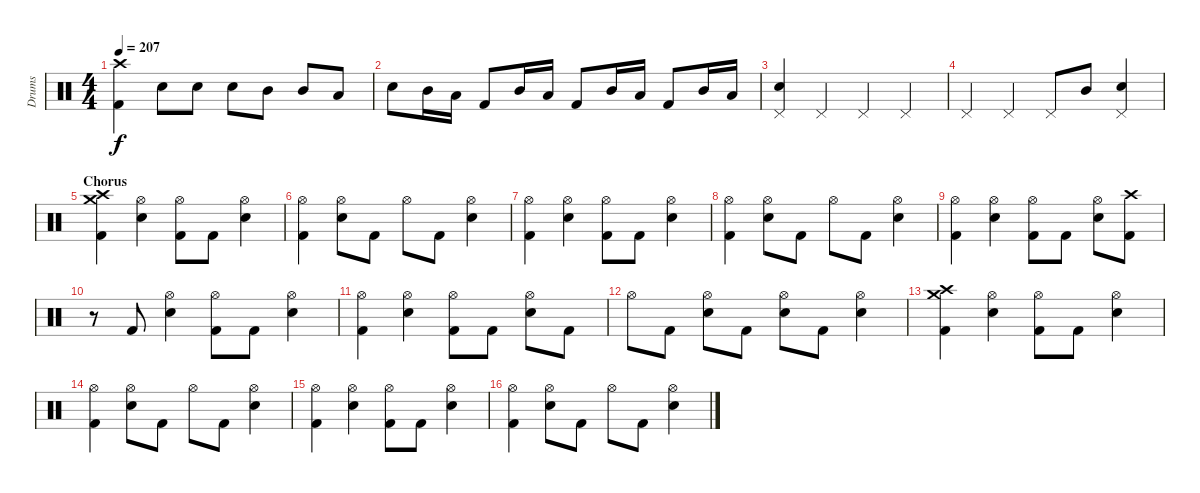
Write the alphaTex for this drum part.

\track ("Drums" "Drums") {instrument percussion}
\staff {score}
\articulation defaults
\ts (4 4)
\tempo 207
\clef neutral
\ks c
("Crash high (hit)" "Kick (hit) 2").4{dy f} "Snare (hit) 2".8 "Snare (hit) 2".8 "Snare (hit) 2".8 "Mid Tom (hit)".8 "Mid Tom (hit)".8 "Low Tom (hit)".8 |
"Snare (hit) 2".8 "Mid Tom (hit)".16 "Low Tom (hit)".16 "Kick (hit) 2".8 "Mid Tom (hit)".16 "Low Tom (hit)".16 "Kick (hit) 2".8 "Mid Tom (hit)".16 "Low Tom (hit)".16 "Kick (hit) 2".8 "Mid Tom (hit)".16 "Low Tom (hit)".16 |
("Pedal Hi-Hat (hit)" "Snare (hit) 2").4 "Pedal Hi-Hat (hit)".4 "Pedal Hi-Hat (hit)".4 "Pedal Hi-Hat (hit)".4 |
"Pedal Hi-Hat (hit)".4 "Pedal Hi-Hat (hit)".4 "Pedal Hi-Hat (hit)".8 "Mid Tom (hit)".8 ("Pedal Hi-Hat (hit)" "Snare (hit) 2").4 |
\section ("" "Chorus")
("Crash medium (hit)" "Crash high (hit)" "Kick (hit) 2").4 ("Hi-Hat (open)" "Snare (hit) 2").4 ("Hi-Hat (open)" "Kick (hit) 2").8 "Kick (hit) 2".8 ("Hi-Hat (open)" "Snare (hit) 2").4 |
("Hi-Hat (open)" "Kick (hit) 2").4 ("Hi-Hat (open)" "Snare (hit) 2").8 "Kick (hit) 2".8 "Hi-Hat (open)".8 "Kick (hit) 2".8 ("Hi-Hat (open)" "Snare (hit) 2").4 |
("Hi-Hat (open)" "Kick (hit) 2").4 ("Hi-Hat (open)" "Snare (hit) 2").4 ("Hi-Hat (open)" "Kick (hit) 2").8 "Kick (hit) 2".8 ("Hi-Hat (open)" "Snare (hit) 2").4 |
("Hi-Hat (open)" "Kick (hit) 2").4 ("Hi-Hat (open)" "Snare (hit) 2").8 "Kick (hit) 2".8 "Hi-Hat (open)".8 "Kick (hit) 2".8 ("Hi-Hat (open)" "Snare (hit) 2").4 |
("Hi-Hat (open)" "Kick (hit) 2").4 ("Hi-Hat (open)" "Snare (hit) 2").4 ("Hi-Hat (open)" "Kick (hit) 2").8 "Kick (hit) 2".8 ("Hi-Hat (open)" "Snare (hit) 2").8 ("Crash high (hit)" "Kick (hit) 2").8 |
r.8 "Kick (hit) 2".8 ("Hi-Hat (open)" "Snare (hit) 2").4 ("Hi-Hat (open)" "Kick (hit) 2").8 "Kick (hit) 2".8 ("Hi-Hat (open)" "Snare (hit) 2").4 |
("Hi-Hat (open)" "Kick (hit) 2").4 ("Hi-Hat (open)" "Snare (hit) 2").4 ("Hi-Hat (open)" "Kick (hit) 2").8 "Kick (hit) 2".8 ("Hi-Hat (open)" "Snare (hit) 2").8 "Kick (hit) 2".8 |
"Hi-Hat (open)".8 "Kick (hit) 2".8 ("Hi-Hat (open)" "Snare (hit) 2").8 "Kick (hit) 2".8 ("Hi-Hat (open)" "Snare (hit) 2").8 "Kick (hit) 2".8 ("Hi-Hat (open)" "Snare (hit) 2").4 |
("Crash medium (hit)" "Crash high (hit)" "Kick (hit) 2").4 ("Hi-Hat (open)" "Snare (hit) 2").4 ("Hi-Hat (open)" "Kick (hit) 2").8 "Kick (hit) 2".8 ("Hi-Hat (open)" "Snare (hit) 2").4 |
("Hi-Hat (open)" "Kick (hit) 2").4 ("Hi-Hat (open)" "Snare (hit) 2").8 "Kick (hit) 2".8 "Hi-Hat (open)".8 "Kick (hit) 2".8 ("Hi-Hat (open)" "Snare (hit) 2").4 |
("Hi-Hat (open)" "Kick (hit) 2").4 ("Hi-Hat (open)" "Snare (hit) 2").4 ("Hi-Hat (open)" "Kick (hit) 2").8 "Kick (hit) 2".8 ("Hi-Hat (open)" "Snare (hit) 2").4 |
("Hi-Hat (open)" "Kick (hit) 2").4 ("Hi-Hat (open)" "Snare (hit) 2").8 "Kick (hit) 2".8 "Hi-Hat (open)".8 "Kick (hit) 2".8 ("Hi-Hat (open)" "Snare (hit) 2").4
